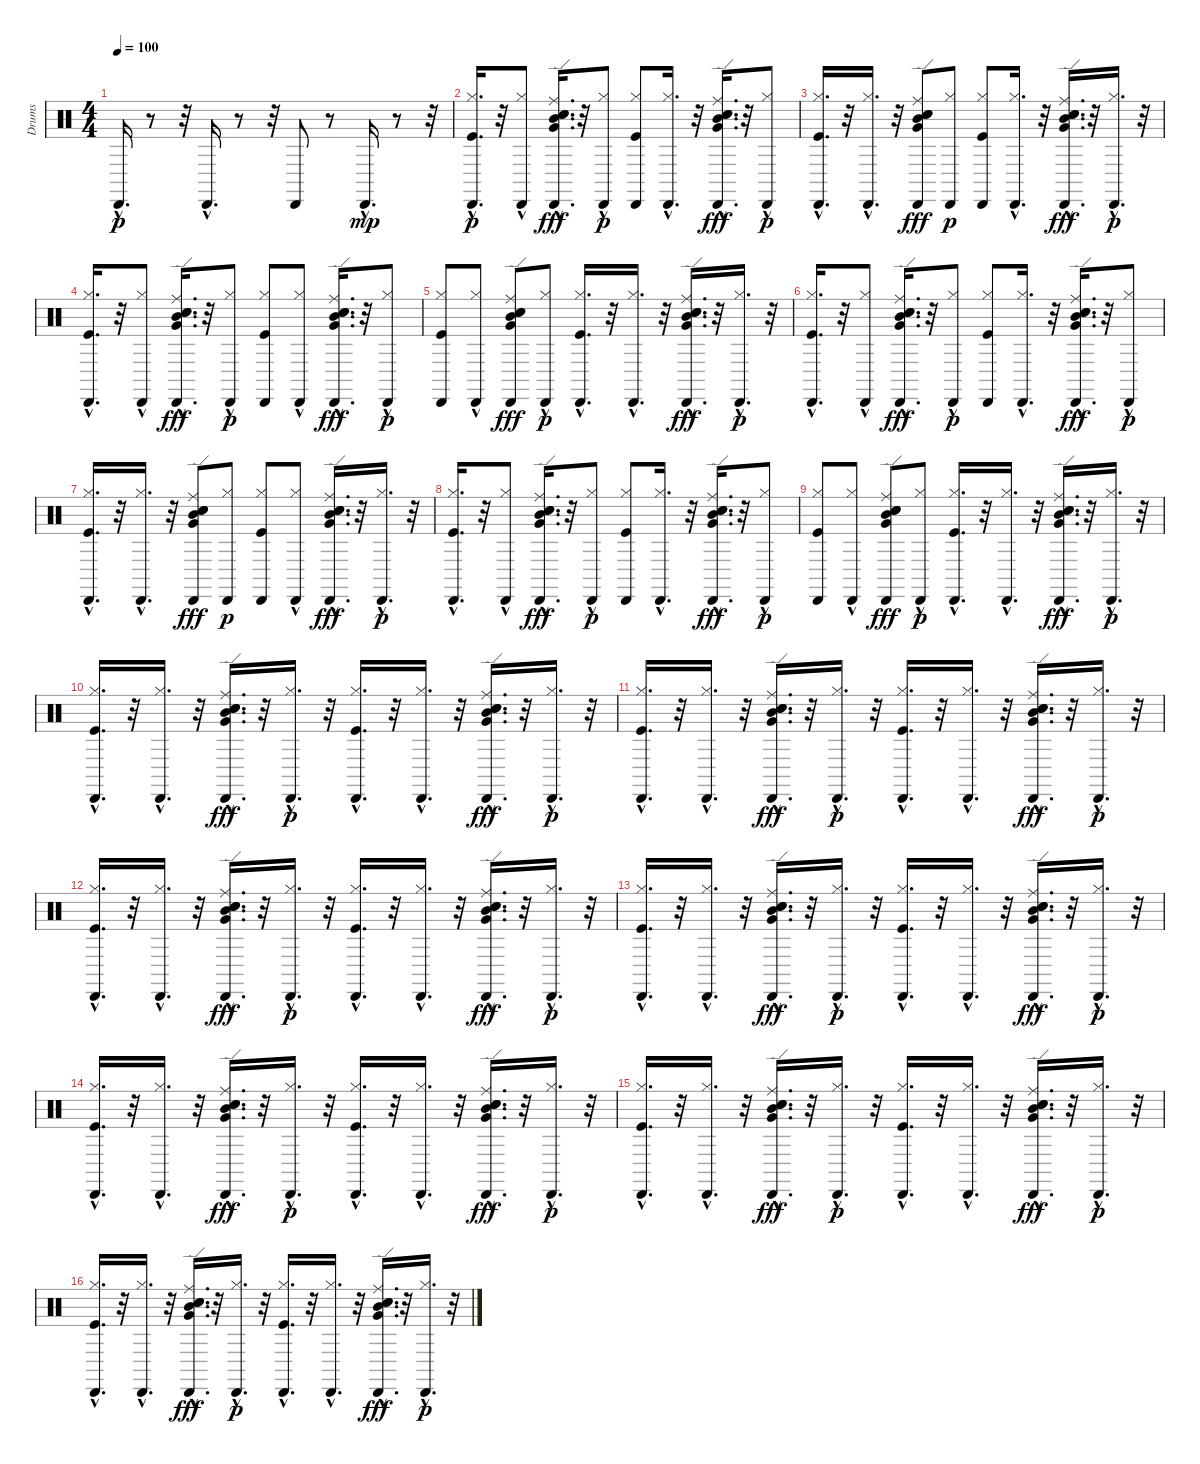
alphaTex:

\track ("Drums" "Drums") {instrument percussion}
\staff {score}
\articulation defaults
\ts (4 4)
\tempo 100
\clef neutral
\ks c "Cabasa (hit)"{hac}.16{d dy p}
r.8 r.32 "Cabasa (hit)"{hac}.16{d} r.8 r.32 "Cabasa (hit)".8 r.8 "Cabasa (hit)"{hac}.16{d dy mp} r.8 r.32 |
("Hi-Hat (closed)"{hac} "Kick (hit)"{hac} "Cabasa (hit)"{hac}).16{d dy p} r.32 ("Hi-Hat (closed)"{hac} "Cabasa (hit)").8 ("Electric Snare (hit)"{hac} "Snare (hit) 2"{hac} "Ride (edge)"{hac} "Mid Tom (hit)"{hac} "Cabasa (hit)"{hac} "Very Low Tom (hit)"{hac}).16{d dy fff} r.32 ("Hi-Hat (closed)"{hac} "Cabasa (hit)").8{dy p} ("Hi-Hat (closed)" "Kick (hit)" "Cabasa (hit)").8 ("Hi-Hat (closed)"{hac} "Cabasa (hit)"{hac}).16{d} r.32 ("Electric Snare (hit)"{hac} "Snare (hit) 2"{hac} "Ride (edge)"{hac} "Mid Tom (hit)"{hac} "Cabasa (hit)"{hac} "Very Low Tom (hit)"{hac}).16{d dy fff} r.32 ("Hi-Hat (closed)"{hac} "Cabasa (hit)").8{dy p} |
("Hi-Hat (closed)"{hac} "Kick (hit)"{hac} "Cabasa (hit)"{hac}).16{d} r.32 ("Hi-Hat (closed)"{hac} "Cabasa (hit)"{hac}).16{d} r.32 ("Electric Snare (hit)" "Snare (hit) 2" "Ride (edge)" "Mid Tom (hit)" "Cabasa (hit)" "Very Low Tom (hit)").8{dy fff} ("Hi-Hat (closed)" "Cabasa (hit)").8{dy p} ("Hi-Hat (closed)" "Kick (hit)" "Cabasa (hit)").8 ("Hi-Hat (closed)"{hac} "Cabasa (hit)"{hac}).16{d} r.32 ("Electric Snare (hit)"{hac} "Snare (hit) 2"{hac} "Ride (edge)"{hac} "Mid Tom (hit)"{hac} "Cabasa (hit)"{hac} "Very Low Tom (hit)"{hac}).16{d dy fff} r.32 ("Hi-Hat (closed)"{hac} "Cabasa (hit)"{hac}).16{d dy p} r.32 |
("Hi-Hat (closed)"{hac} "Kick (hit)"{hac} "Cabasa (hit)"{hac}).16{d} r.32 ("Hi-Hat (closed)"{hac} "Cabasa (hit)").8 ("Electric Snare (hit)"{hac} "Snare (hit) 2"{hac} "Ride (edge)"{hac} "Mid Tom (hit)"{hac} "Cabasa (hit)"{hac} "Very Low Tom (hit)"{hac}).16{d dy fff} r.32 ("Hi-Hat (closed)"{hac} "Cabasa (hit)").8{dy p} ("Hi-Hat (closed)" "Kick (hit)" "Cabasa (hit)").8 ("Hi-Hat (closed)"{hac} "Cabasa (hit)").8 ("Electric Snare (hit)"{hac} "Snare (hit) 2"{hac} "Ride (edge)"{hac} "Mid Tom (hit)"{hac} "Cabasa (hit)"{hac} "Very Low Tom (hit)"{hac}).16{d dy fff} r.32 ("Hi-Hat (closed)"{hac} "Cabasa (hit)").8{dy p} |
("Hi-Hat (closed)" "Kick (hit)" "Cabasa (hit)").8 ("Hi-Hat (closed)"{hac} "Cabasa (hit)").8 ("Electric Snare (hit)" "Snare (hit) 2" "Ride (edge)" "Mid Tom (hit)" "Cabasa (hit)" "Very Low Tom (hit)").8{dy fff} ("Hi-Hat (closed)"{hac} "Cabasa (hit)").8{dy p} ("Hi-Hat (closed)"{hac} "Kick (hit)"{hac} "Cabasa (hit)"{hac}).16{d} r.32 ("Hi-Hat (closed)"{hac} "Cabasa (hit)"{hac}).16{d} r.32 ("Electric Snare (hit)"{hac} "Snare (hit) 2"{hac} "Ride (edge)"{hac} "Mid Tom (hit)"{hac} "Cabasa (hit)"{hac} "Very Low Tom (hit)"{hac}).16{d dy fff} r.32 ("Hi-Hat (closed)"{hac} "Cabasa (hit)"{hac}).16{d dy p} r.32 |
("Hi-Hat (closed)"{hac} "Kick (hit)"{hac} "Cabasa (hit)"{hac}).16{d} r.32 ("Hi-Hat (closed)"{hac} "Cabasa (hit)").8 ("Electric Snare (hit)"{hac} "Snare (hit) 2"{hac} "Ride (edge)"{hac} "Mid Tom (hit)"{hac} "Cabasa (hit)"{hac} "Very Low Tom (hit)"{hac}).16{d dy fff} r.32 ("Hi-Hat (closed)"{hac} "Cabasa (hit)").8{dy p} ("Hi-Hat (closed)" "Kick (hit)" "Cabasa (hit)").8 ("Hi-Hat (closed)"{hac} "Cabasa (hit)"{hac}).16{d} r.32 ("Electric Snare (hit)"{hac} "Snare (hit) 2"{hac} "Ride (edge)"{hac} "Mid Tom (hit)"{hac} "Cabasa (hit)"{hac} "Very Low Tom (hit)"{hac}).16{d dy fff} r.32 ("Hi-Hat (closed)"{hac} "Cabasa (hit)").8{dy p} |
("Hi-Hat (closed)"{hac} "Kick (hit)"{hac} "Cabasa (hit)"{hac}).16{d} r.32 ("Hi-Hat (closed)"{hac} "Cabasa (hit)"{hac}).16{d} r.32 ("Electric Snare (hit)" "Snare (hit) 2" "Ride (edge)" "Mid Tom (hit)" "Cabasa (hit)" "Very Low Tom (hit)").8{dy fff} ("Hi-Hat (closed)" "Cabasa (hit)").8{dy p} ("Hi-Hat (closed)" "Kick (hit)" "Cabasa (hit)").8 ("Hi-Hat (closed)"{hac} "Cabasa (hit)").8 ("Electric Snare (hit)"{hac} "Snare (hit) 2"{hac} "Ride (edge)"{hac} "Mid Tom (hit)"{hac} "Cabasa (hit)"{hac} "Very Low Tom (hit)"{hac}).16{d dy fff} r.32 ("Hi-Hat (closed)"{hac} "Cabasa (hit)"{hac}).16{d dy p} r.32 |
("Hi-Hat (closed)"{hac} "Kick (hit)"{hac} "Cabasa (hit)"{hac}).16{d} r.32 ("Hi-Hat (closed)"{hac} "Cabasa (hit)").8 ("Electric Snare (hit)"{hac} "Snare (hit) 2"{hac} "Ride (edge)"{hac} "Mid Tom (hit)"{hac} "Cabasa (hit)"{hac} "Very Low Tom (hit)"{hac}).16{d dy fff} r.32 ("Hi-Hat (closed)"{hac} "Cabasa (hit)").8{dy p} ("Hi-Hat (closed)" "Kick (hit)" "Cabasa (hit)").8 ("Hi-Hat (closed)"{hac} "Cabasa (hit)"{hac}).16{d} r.32 ("Electric Snare (hit)"{hac} "Snare (hit) 2"{hac} "Ride (edge)"{hac} "Mid Tom (hit)"{hac} "Cabasa (hit)"{hac} "Very Low Tom (hit)"{hac}).16{d dy fff} r.32 ("Hi-Hat (closed)"{hac} "Cabasa (hit)").8{dy p} |
("Hi-Hat (closed)" "Kick (hit)" "Cabasa (hit)").8 ("Hi-Hat (closed)"{hac} "Cabasa (hit)").8 ("Electric Snare (hit)" "Snare (hit) 2" "Ride (edge)" "Mid Tom (hit)" "Cabasa (hit)" "Very Low Tom (hit)").8{dy fff} ("Hi-Hat (closed)"{hac} "Cabasa (hit)").8{dy p} ("Hi-Hat (closed)"{hac} "Kick (hit)"{hac} "Cabasa (hit)"{hac}).16{d} r.32 ("Hi-Hat (closed)"{hac} "Cabasa (hit)"{hac}).16{d} r.32 ("Electric Snare (hit)"{hac} "Snare (hit) 2"{hac} "Ride (edge)"{hac} "Mid Tom (hit)"{hac} "Cabasa (hit)"{hac} "Very Low Tom (hit)"{hac}).16{d dy fff} r.32 ("Hi-Hat (closed)"{hac} "Cabasa (hit)"{hac}).16{d dy p} r.32 |
("Hi-Hat (closed)"{hac} "Kick (hit)"{hac} "Cabasa (hit)"{hac}).16{d} r.32 ("Hi-Hat (closed)"{hac} "Cabasa (hit)"{hac}).16{d} r.32 ("Electric Snare (hit)"{hac} "Snare (hit) 2"{hac} "Ride (edge)"{hac} "Mid Tom (hit)"{hac} "Cabasa (hit)"{hac} "Very Low Tom (hit)"{hac}).16{d dy fff} r.32 ("Hi-Hat (closed)"{hac} "Cabasa (hit)"{hac}).16{d dy p} r.32 ("Hi-Hat (closed)"{hac} "Kick (hit)"{hac} "Cabasa (hit)"{hac}).16{d} r.32 ("Hi-Hat (closed)"{hac} "Cabasa (hit)"{hac}).16{d} r.32 ("Electric Snare (hit)"{hac} "Snare (hit) 2"{hac} "Ride (edge)"{hac} "Mid Tom (hit)"{hac} "Cabasa (hit)"{hac} "Very Low Tom (hit)"{hac}).16{d dy fff} r.32 ("Hi-Hat (closed)"{hac} "Cabasa (hit)"{hac}).16{d dy p} r.32 |
("Hi-Hat (closed)"{hac} "Kick (hit)"{hac} "Cabasa (hit)"{hac}).16{d} r.32 ("Hi-Hat (closed)"{hac} "Cabasa (hit)"{hac}).16{d} r.32 ("Electric Snare (hit)"{hac} "Snare (hit) 2"{hac} "Ride (edge)"{hac} "Mid Tom (hit)"{hac} "Cabasa (hit)"{hac} "Very Low Tom (hit)"{hac}).16{d dy fff} r.32 ("Hi-Hat (closed)"{hac} "Cabasa (hit)"{hac}).16{d dy p} r.32 ("Hi-Hat (closed)"{hac} "Kick (hit)"{hac} "Cabasa (hit)"{hac}).16{d} r.32 ("Hi-Hat (closed)"{hac} "Cabasa (hit)"{hac}).16{d} r.32 ("Electric Snare (hit)"{hac} "Snare (hit) 2"{hac} "Ride (edge)"{hac} "Mid Tom (hit)"{hac} "Cabasa (hit)"{hac} "Very Low Tom (hit)"{hac}).16{d dy fff} r.32 ("Hi-Hat (closed)"{hac} "Cabasa (hit)"{hac}).16{d dy p} r.32 |
("Hi-Hat (closed)"{hac} "Kick (hit)"{hac} "Cabasa (hit)"{hac}).16{d} r.32 ("Hi-Hat (closed)"{hac} "Cabasa (hit)"{hac}).16{d} r.32 ("Electric Snare (hit)"{hac} "Snare (hit) 2"{hac} "Ride (edge)"{hac} "Mid Tom (hit)"{hac} "Cabasa (hit)"{hac} "Very Low Tom (hit)"{hac}).16{d dy fff} r.32 ("Hi-Hat (closed)"{hac} "Cabasa (hit)"{hac}).16{d dy p} r.32 ("Hi-Hat (closed)"{hac} "Kick (hit)"{hac} "Cabasa (hit)"{hac}).16{d} r.32 ("Hi-Hat (closed)"{hac} "Cabasa (hit)"{hac}).16{d} r.32 ("Electric Snare (hit)"{hac} "Snare (hit) 2"{hac} "Ride (edge)"{hac} "Mid Tom (hit)"{hac} "Cabasa (hit)"{hac} "Very Low Tom (hit)"{hac}).16{d dy fff} r.32 ("Hi-Hat (closed)"{hac} "Cabasa (hit)"{hac}).16{d dy p} r.32 |
("Hi-Hat (closed)"{hac} "Kick (hit)"{hac} "Cabasa (hit)"{hac}).16{d} r.32 ("Hi-Hat (closed)"{hac} "Cabasa (hit)"{hac}).16{d} r.32 ("Electric Snare (hit)"{hac} "Snare (hit) 2"{hac} "Ride (edge)"{hac} "Mid Tom (hit)"{hac} "Cabasa (hit)"{hac} "Very Low Tom (hit)"{hac}).16{d dy fff} r.32 ("Hi-Hat (closed)"{hac} "Cabasa (hit)"{hac}).16{d dy p} r.32 ("Hi-Hat (closed)"{hac} "Kick (hit)"{hac} "Cabasa (hit)"{hac}).16{d} r.32 ("Hi-Hat (closed)"{hac} "Cabasa (hit)"{hac}).16{d} r.32 ("Electric Snare (hit)"{hac} "Snare (hit) 2"{hac} "Ride (edge)"{hac} "Mid Tom (hit)"{hac} "Cabasa (hit)"{hac} "Very Low Tom (hit)"{hac}).16{d dy fff} r.32 ("Hi-Hat (closed)"{hac} "Cabasa (hit)"{hac}).16{d dy p} r.32 |
("Hi-Hat (closed)"{hac} "Kick (hit)"{hac} "Cabasa (hit)"{hac}).16{d} r.32 ("Hi-Hat (closed)"{hac} "Cabasa (hit)"{hac}).16{d} r.32 ("Electric Snare (hit)"{hac} "Snare (hit) 2"{hac} "Ride (edge)"{hac} "Mid Tom (hit)"{hac} "Cabasa (hit)"{hac} "Very Low Tom (hit)"{hac}).16{d dy fff} r.32 ("Hi-Hat (closed)"{hac} "Cabasa (hit)"{hac}).16{d dy p} r.32 ("Hi-Hat (closed)"{hac} "Kick (hit)"{hac} "Cabasa (hit)"{hac}).16{d} r.32 ("Hi-Hat (closed)"{hac} "Cabasa (hit)"{hac}).16{d} r.32 ("Electric Snare (hit)"{hac} "Snare (hit) 2"{hac} "Ride (edge)"{hac} "Mid Tom (hit)"{hac} "Cabasa (hit)"{hac} "Very Low Tom (hit)"{hac}).16{d dy fff} r.32 ("Hi-Hat (closed)"{hac} "Cabasa (hit)"{hac}).16{d dy p} r.32 |
("Hi-Hat (closed)"{hac} "Kick (hit)"{hac} "Cabasa (hit)"{hac}).16{d} r.32 ("Hi-Hat (closed)"{hac} "Cabasa (hit)"{hac}).16{d} r.32 ("Electric Snare (hit)"{hac} "Snare (hit) 2"{hac} "Ride (edge)"{hac} "Mid Tom (hit)"{hac} "Cabasa (hit)"{hac} "Very Low Tom (hit)"{hac}).16{d dy fff} r.32 ("Hi-Hat (closed)"{hac} "Cabasa (hit)"{hac}).16{d dy p} r.32 ("Hi-Hat (closed)"{hac} "Kick (hit)"{hac} "Cabasa (hit)"{hac}).16{d} r.32 ("Hi-Hat (closed)"{hac} "Cabasa (hit)"{hac}).16{d} r.32 ("Electric Snare (hit)"{hac} "Snare (hit) 2"{hac} "Ride (edge)"{hac} "Mid Tom (hit)"{hac} "Cabasa (hit)"{hac} "Very Low Tom (hit)"{hac}).16{d dy fff} r.32 ("Hi-Hat (closed)"{hac} "Cabasa (hit)"{hac}).16{d dy p} r.32 |
("Hi-Hat (closed)"{hac} "Kick (hit)"{hac} "Cabasa (hit)"{hac}).16{d} r.32 ("Hi-Hat (closed)"{hac} "Cabasa (hit)"{hac}).16{d} r.32 ("Electric Snare (hit)"{hac} "Snare (hit) 2"{hac} "Ride (edge)"{hac} "Mid Tom (hit)"{hac} "Cabasa (hit)"{hac} "Very Low Tom (hit)"{hac}).16{d dy fff} r.32 ("Hi-Hat (closed)"{hac} "Cabasa (hit)"{hac}).16{d dy p} r.32 ("Hi-Hat (closed)"{hac} "Kick (hit)"{hac} "Cabasa (hit)"{hac}).16{d} r.32 ("Hi-Hat (closed)"{hac} "Cabasa (hit)"{hac}).16{d} r.32 ("Electric Snare (hit)"{hac} "Snare (hit) 2"{hac} "Ride (edge)"{hac} "Mid Tom (hit)"{hac} "Cabasa (hit)"{hac} "Very Low Tom (hit)"{hac}).16{d dy fff} r.32 ("Hi-Hat (closed)"{hac} "Cabasa (hit)"{hac}).16{d dy p} r.32
